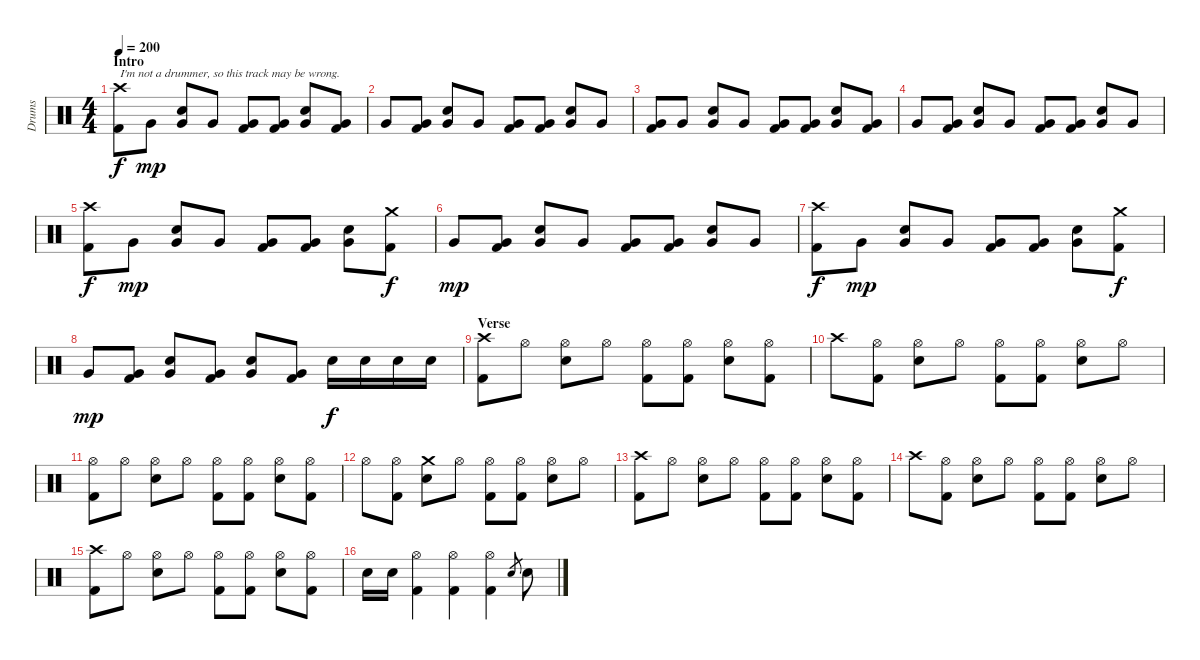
\track ("Drums" "Drums") {instrument percussion}
\staff {score}
\articulation defaults
\ts (4 4)
\section ("" "Intro")
\tempo 200
\clef neutral
\ks c
("Crash high (hit)" "Kick (hit) 2").8{txt "I'm not a drummer, so this track may be wrong." dy f} "Very Low Tom (hit)".8{dy mp} ("Electric Snare (hit)" "Very Low Tom (hit)").8 "Very Low Tom (hit)".8 ("Very Low Tom (hit)" "Kick (hit) 2").8 ("Very Low Tom (hit)" "Kick (hit) 2").8 ("Electric Snare (hit)" "Very Low Tom (hit)").8 ("Very Low Tom (hit)" "Kick (hit) 2").8 |
"Very Low Tom (hit)".8 ("Very Low Tom (hit)" "Kick (hit) 2").8 ("Electric Snare (hit)" "Very Low Tom (hit)").8 "Very Low Tom (hit)".8 ("Very Low Tom (hit)" "Kick (hit) 2").8 ("Very Low Tom (hit)" "Kick (hit) 2").8 ("Electric Snare (hit)" "Very Low Tom (hit)").8 "Very Low Tom (hit)".8 |
("Very Low Tom (hit)" "Kick (hit) 2").8 "Very Low Tom (hit)".8 ("Electric Snare (hit)" "Very Low Tom (hit)").8 "Very Low Tom (hit)".8 ("Very Low Tom (hit)" "Kick (hit) 2").8 ("Very Low Tom (hit)" "Kick (hit) 2").8 ("Electric Snare (hit)" "Very Low Tom (hit)").8 ("Very Low Tom (hit)" "Kick (hit) 2").8 |
"Very Low Tom (hit)".8 ("Very Low Tom (hit)" "Kick (hit) 2").8 ("Electric Snare (hit)" "Very Low Tom (hit)").8 "Very Low Tom (hit)".8 ("Very Low Tom (hit)" "Kick (hit) 2").8 ("Very Low Tom (hit)" "Kick (hit) 2").8 ("Electric Snare (hit)" "Very Low Tom (hit)").8 "Very Low Tom (hit)".8 |
("Crash high (hit)" "Kick (hit) 2").8{dy f} "Very Low Tom (hit)".8{dy mp} ("Electric Snare (hit)" "Very Low Tom (hit)").8 "Very Low Tom (hit)".8 ("Very Low Tom (hit)" "Kick (hit) 2").8 ("Very Low Tom (hit)" "Kick (hit) 2").8 ("Electric Snare (hit)" "Very Low Tom (hit)").8 ("Crash medium (hit)" "Kick (hit) 2").8{dy f} |
"Very Low Tom (hit)".8{dy mp} ("Very Low Tom (hit)" "Kick (hit) 2").8 ("Electric Snare (hit)" "Very Low Tom (hit)").8 "Very Low Tom (hit)".8 ("Very Low Tom (hit)" "Kick (hit) 2").8 ("Very Low Tom (hit)" "Kick (hit) 2").8 ("Electric Snare (hit)" "Very Low Tom (hit)").8 "Very Low Tom (hit)".8 |
("Crash high (hit)" "Kick (hit) 2").8{dy f} "Very Low Tom (hit)".8{dy mp} ("Electric Snare (hit)" "Very Low Tom (hit)").8 "Very Low Tom (hit)".8 ("Very Low Tom (hit)" "Kick (hit) 2").8 ("Very Low Tom (hit)" "Kick (hit) 2").8 ("Electric Snare (hit)" "Very Low Tom (hit)").8 ("Crash medium (hit)" "Kick (hit) 2").8{dy f} |
"Very Low Tom (hit)".8{dy mp} ("Very Low Tom (hit)" "Kick (hit) 2").8 ("Electric Snare (hit)" "Very Low Tom (hit)").8 ("Very Low Tom (hit)" "Kick (hit) 2").8 ("Electric Snare (hit)" "Very Low Tom (hit)").8 ("Very Low Tom (hit)" "Kick (hit) 2").8 "Electric Snare (hit)".16{dy f} "Electric Snare (hit)".16 "Electric Snare (hit)".16 "Electric Snare (hit)".16 |
\section ("" "Verse")
("Crash high (hit)" "Kick (hit) 2").8 "Hi-Hat (open)".8 ("Hi-Hat (open)" "Electric Snare (hit)").8 "Hi-Hat (open)".8 ("Hi-Hat (open)" "Kick (hit) 2").8 ("Hi-Hat (open)" "Kick (hit) 2").8 ("Hi-Hat (open)" "Electric Snare (hit)").8 ("Hi-Hat (open)" "Kick (hit) 2").8 |
"Crash high (hit)".8 ("Hi-Hat (open)" "Kick (hit) 2").8 ("Hi-Hat (open)" "Electric Snare (hit)").8 "Hi-Hat (open)".8 ("Hi-Hat (open)" "Kick (hit) 2").8 ("Hi-Hat (open)" "Kick (hit) 2").8 ("Hi-Hat (open)" "Electric Snare (hit)").8 "Hi-Hat (open)".8 |
("Hi-Hat (open)" "Kick (hit) 2").8 "Hi-Hat (open)".8 ("Hi-Hat (open)" "Electric Snare (hit)").8 "Hi-Hat (open)".8 ("Hi-Hat (open)" "Kick (hit) 2").8 ("Hi-Hat (open)" "Kick (hit) 2").8 ("Hi-Hat (open)" "Electric Snare (hit)").8 ("Hi-Hat (open)" "Kick (hit) 2").8 |
"Hi-Hat (open)".8 ("Hi-Hat (open)" "Kick (hit) 2").8 ("Crash medium (hit)" "Electric Snare (hit)").8 "Hi-Hat (open)".8 ("Hi-Hat (open)" "Kick (hit) 2").8 ("Hi-Hat (open)" "Kick (hit) 2").8 ("Hi-Hat (open)" "Electric Snare (hit)").8 "Hi-Hat (open)".8 |
("Crash high (hit)" "Kick (hit) 2").8 "Hi-Hat (open)".8 ("Hi-Hat (open)" "Electric Snare (hit)").8 "Hi-Hat (open)".8 ("Hi-Hat (open)" "Kick (hit) 2").8 ("Hi-Hat (open)" "Kick (hit) 2").8 ("Hi-Hat (open)" "Electric Snare (hit)").8 ("Hi-Hat (open)" "Kick (hit) 2").8 |
"Crash high (hit)".8 ("Hi-Hat (open)" "Kick (hit) 2").8 ("Hi-Hat (open)" "Electric Snare (hit)").8 "Hi-Hat (open)".8 ("Hi-Hat (open)" "Kick (hit) 2").8 ("Hi-Hat (open)" "Kick (hit) 2").8 ("Hi-Hat (open)" "Electric Snare (hit)").8 "Hi-Hat (open)".8 |
("Crash high (hit)" "Kick (hit) 2").8 "Hi-Hat (open)".8 ("Hi-Hat (open)" "Electric Snare (hit)").8 "Hi-Hat (open)".8 ("Hi-Hat (open)" "Kick (hit) 2").8 ("Hi-Hat (open)" "Kick (hit) 2").8 ("Hi-Hat (open)" "Electric Snare (hit)").8 ("Hi-Hat (open)" "Kick (hit) 2").8 |
"Electric Snare (hit)".16 "Electric Snare (hit)".16 ("Hi-Hat (open)" "Kick (hit) 2").4 ("Hi-Hat (open)" "Kick (hit) 2").4 ("Hi-Hat (open)" "Kick (hit) 2").4 "Electric Snare (hit)".8{gr} "Electric Snare (hit)".8
